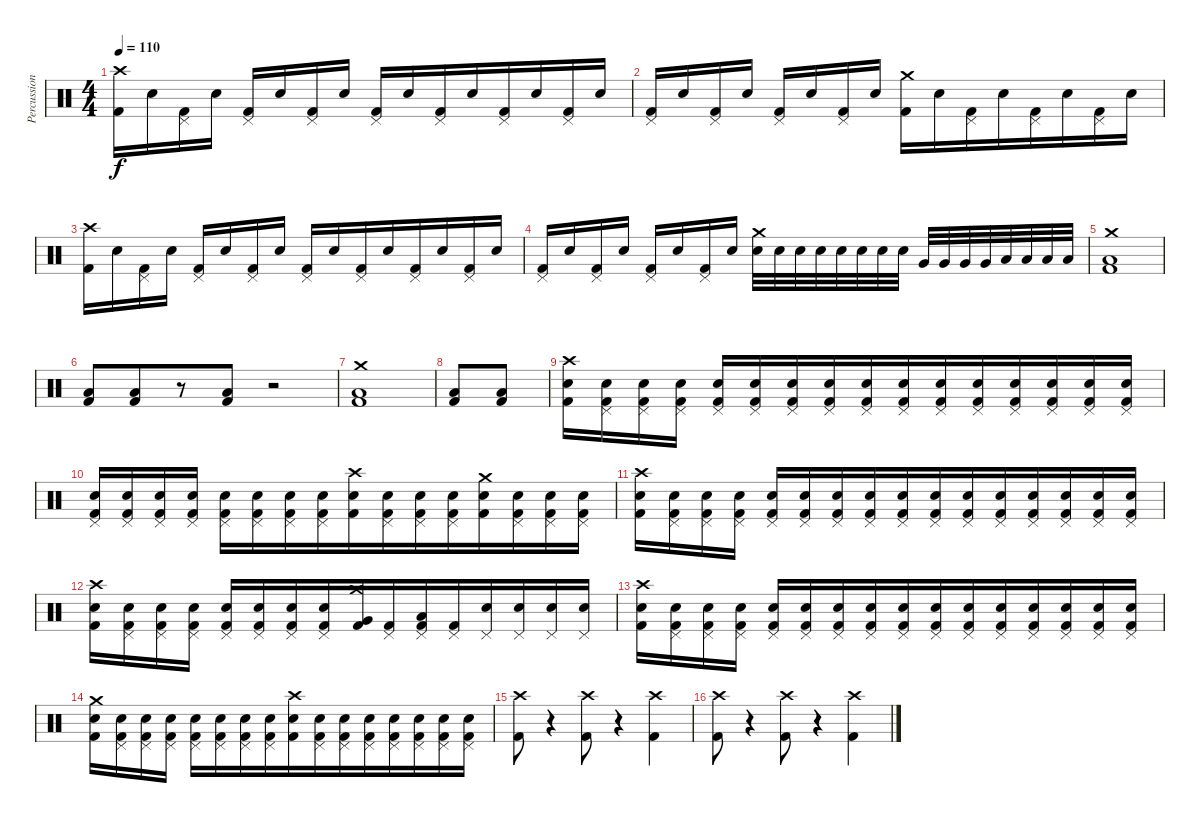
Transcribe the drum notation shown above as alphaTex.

\track ("Percussion" "Percussion") {instrument percussion bank 36}
\staff {score}
\articulation defaults
\ts (4 4)
\tempo 110
\clef neutral
\ks c
("Crash high (hit)" "Kick (hit) 2").16{dy f} "Electric Snare (hit)".16{beam merge} ("Pedal Hi-Hat (hit)" "Kick (hit) 2").16 "Electric Snare (hit)".16 ("Pedal Hi-Hat (hit)" "Kick (hit) 2").16{beam merge} "Electric Snare (hit)".16{beam merge} ("Pedal Hi-Hat (hit)" "Kick (hit) 2").16 "Electric Snare (hit)".16 ("Pedal Hi-Hat (hit)" "Kick (hit) 2").16 "Electric Snare (hit)".16{beam merge} ("Pedal Hi-Hat (hit)" "Kick (hit) 2").16 "Electric Snare (hit)".16{beam merge} ("Pedal Hi-Hat (hit)" "Kick (hit) 2").16{beam merge} "Electric Snare (hit)".16{beam merge} ("Pedal Hi-Hat (hit)" "Kick (hit) 2").16{beam merge} "Electric Snare (hit)".16 |
("Pedal Hi-Hat (hit)" "Kick (hit) 2").16 "Electric Snare (hit)".16{beam merge} ("Pedal Hi-Hat (hit)" "Kick (hit) 2").16 "Electric Snare (hit)".16 ("Pedal Hi-Hat (hit)" "Kick (hit) 2").16{beam merge} "Electric Snare (hit)".16{beam merge} ("Pedal Hi-Hat (hit)" "Kick (hit) 2").16 "Electric Snare (hit)".16 ("Crash medium (hit)" "Kick (hit) 2").16 "Electric Snare (hit)".16{beam merge} ("Pedal Hi-Hat (hit)" "Kick (hit) 2").16 "Electric Snare (hit)".16{beam merge} ("Pedal Hi-Hat (hit)" "Kick (hit) 2").16{beam merge} "Electric Snare (hit)".16{beam merge} ("Pedal Hi-Hat (hit)" "Kick (hit) 2").16{beam merge} "Electric Snare (hit)".16 |
("Crash high (hit)" "Kick (hit) 2").16 "Electric Snare (hit)".16{beam merge} ("Pedal Hi-Hat (hit)" "Kick (hit) 2").16 "Electric Snare (hit)".16 ("Pedal Hi-Hat (hit)" "Kick (hit) 2").16{beam merge} "Electric Snare (hit)".16{beam merge} ("Pedal Hi-Hat (hit)" "Kick (hit) 2").16 "Electric Snare (hit)".16 ("Pedal Hi-Hat (hit)" "Kick (hit) 2").16 "Electric Snare (hit)".16{beam merge} ("Pedal Hi-Hat (hit)" "Kick (hit) 2").16 "Electric Snare (hit)".16{beam merge} ("Pedal Hi-Hat (hit)" "Kick (hit) 2").16{beam merge} "Electric Snare (hit)".16{beam merge} ("Pedal Hi-Hat (hit)" "Kick (hit) 2").16{beam merge} "Electric Snare (hit)".16 |
("Pedal Hi-Hat (hit)" "Kick (hit) 2").16 "Electric Snare (hit)".16{beam merge} ("Pedal Hi-Hat (hit)" "Kick (hit) 2").16 "Electric Snare (hit)".16 ("Pedal Hi-Hat (hit)" "Kick (hit) 2").16{beam merge} "Electric Snare (hit)".16{beam merge} ("Pedal Hi-Hat (hit)" "Kick (hit) 2").16 "Electric Snare (hit)".16 ("Crash medium (hit)" "Electric Snare (hit)").32 "Electric Snare (hit)".32{beam merge} "Electric Snare (hit)".32 "Electric Snare (hit)".32{beam merge} "Electric Snare (hit)".32{beam merge} "Electric Snare (hit)".32{beam merge} "Electric Snare (hit)".32{beam merge} "Electric Snare (hit)".32 "Very Low Tom (hit)".32{beam merge} "Very Low Tom (hit)".32 "Very Low Tom (hit)".32 "Very Low Tom (hit)".32{beam merge} "Low Floor Tom (hit)".32 "Low Floor Tom (hit)".32{beam merge} "Low Floor Tom (hit)".32 "Low Floor Tom (hit)".32 |
("Crash medium (hit)" "Low Floor Tom (hit)" "Kick (hit) 2").1 |
("Low Floor Tom (hit)" "Kick (hit) 2").8 ("Low Floor Tom (hit)" "Kick (hit) 2").8{beam merge} r.8 ("Low Floor Tom (hit)" "Kick (hit) 2").8 r.2 |
("Crash medium (hit)" "Low Floor Tom (hit)" "Kick (hit) 2").1 |
("Low Floor Tom (hit)" "Kick (hit) 2").8 ("Low Floor Tom (hit)" "Kick (hit) 2").8 |
("Crash high (hit)" "Electric Snare (hit)" "Kick (hit) 2").16 ("Pedal Hi-Hat (hit)" "Electric Snare (hit)" "Kick (hit) 2").16 ("Pedal Hi-Hat (hit)" "Electric Snare (hit)" "Kick (hit) 2").16 ("Pedal Hi-Hat (hit)" "Electric Snare (hit)" "Kick (hit) 2").16 ("Pedal Hi-Hat (hit)" "Electric Snare (hit)" "Kick (hit) 2").16 ("Pedal Hi-Hat (hit)" "Electric Snare (hit)" "Kick (hit) 2").16 ("Pedal Hi-Hat (hit)" "Electric Snare (hit)" "Kick (hit) 2").16 ("Pedal Hi-Hat (hit)" "Electric Snare (hit)" "Kick (hit) 2").16{beam merge} ("Pedal Hi-Hat (hit)" "Electric Snare (hit)" "Kick (hit) 2").16{beam merge} ("Pedal Hi-Hat (hit)" "Electric Snare (hit)" "Kick (hit) 2").16{beam merge} ("Pedal Hi-Hat (hit)" "Electric Snare (hit)" "Kick (hit) 2").16 ("Pedal Hi-Hat (hit)" "Electric Snare (hit)" "Kick (hit) 2").16{beam merge} ("Pedal Hi-Hat (hit)" "Electric Snare (hit)" "Kick (hit) 2").16{beam merge} ("Pedal Hi-Hat (hit)" "Electric Snare (hit)" "Kick (hit) 2").16{beam merge} ("Pedal Hi-Hat (hit)" "Electric Snare (hit)" "Kick (hit) 2").16 ("Pedal Hi-Hat (hit)" "Electric Snare (hit)" "Kick (hit) 2").16 |
("Pedal Hi-Hat (hit)" "Electric Snare (hit)" "Kick (hit) 2").16 ("Pedal Hi-Hat (hit)" "Electric Snare (hit)" "Kick (hit) 2").16 ("Pedal Hi-Hat (hit)" "Electric Snare (hit)" "Kick (hit) 2").16 ("Pedal Hi-Hat (hit)" "Electric Snare (hit)" "Kick (hit) 2").16 ("Pedal Hi-Hat (hit)" "Electric Snare (hit)" "Kick (hit) 2").16 ("Pedal Hi-Hat (hit)" "Electric Snare (hit)" "Kick (hit) 2").16 ("Pedal Hi-Hat (hit)" "Electric Snare (hit)" "Kick (hit) 2").16 ("Pedal Hi-Hat (hit)" "Electric Snare (hit)" "Kick (hit) 2").16{beam merge} ("Crash high (hit)" "Electric Snare (hit)" "Kick (hit) 2").16{beam merge} ("Pedal Hi-Hat (hit)" "Electric Snare (hit)" "Kick (hit) 2").16{beam merge} ("Pedal Hi-Hat (hit)" "Electric Snare (hit)" "Kick (hit) 2").16 ("Pedal Hi-Hat (hit)" "Electric Snare (hit)" "Kick (hit) 2").16{beam merge} ("Crash medium (hit)" "Electric Snare (hit)" "Kick (hit) 2").16{beam merge} ("Pedal Hi-Hat (hit)" "Electric Snare (hit)" "Kick (hit) 2").16{beam merge} ("Pedal Hi-Hat (hit)" "Electric Snare (hit)" "Kick (hit) 2").16 ("Pedal Hi-Hat (hit)" "Electric Snare (hit)" "Kick (hit) 2").16 |
("Crash high (hit)" "Electric Snare (hit)" "Kick (hit) 2").16 ("Pedal Hi-Hat (hit)" "Electric Snare (hit)" "Kick (hit) 2").16 ("Pedal Hi-Hat (hit)" "Electric Snare (hit)" "Kick (hit) 2").16 ("Pedal Hi-Hat (hit)" "Electric Snare (hit)" "Kick (hit) 2").16 ("Pedal Hi-Hat (hit)" "Electric Snare (hit)" "Kick (hit) 2").16 ("Pedal Hi-Hat (hit)" "Electric Snare (hit)" "Kick (hit) 2").16 ("Pedal Hi-Hat (hit)" "Electric Snare (hit)" "Kick (hit) 2").16 ("Pedal Hi-Hat (hit)" "Electric Snare (hit)" "Kick (hit) 2").16{beam merge} ("Pedal Hi-Hat (hit)" "Electric Snare (hit)" "Kick (hit) 2").16{beam merge} ("Pedal Hi-Hat (hit)" "Electric Snare (hit)" "Kick (hit) 2").16{beam merge} ("Pedal Hi-Hat (hit)" "Electric Snare (hit)" "Kick (hit) 2").16 ("Pedal Hi-Hat (hit)" "Electric Snare (hit)" "Kick (hit) 2").16{beam merge} ("Pedal Hi-Hat (hit)" "Electric Snare (hit)" "Kick (hit) 2").16{beam merge} ("Pedal Hi-Hat (hit)" "Electric Snare (hit)" "Kick (hit) 2").16{beam merge} ("Pedal Hi-Hat (hit)" "Electric Snare (hit)" "Kick (hit) 2").16 ("Pedal Hi-Hat (hit)" "Electric Snare (hit)" "Kick (hit) 2").16 |
("Crash high (hit)" "Electric Snare (hit)" "Kick (hit) 2").16 ("Pedal Hi-Hat (hit)" "Electric Snare (hit)" "Kick (hit) 2").16 ("Pedal Hi-Hat (hit)" "Electric Snare (hit)" "Kick (hit) 2").16 ("Pedal Hi-Hat (hit)" "Electric Snare (hit)" "Kick (hit) 2").16 ("Pedal Hi-Hat (hit)" "Electric Snare (hit)" "Kick (hit) 2").16 ("Pedal Hi-Hat (hit)" "Electric Snare (hit)" "Kick (hit) 2").16 ("Pedal Hi-Hat (hit)" "Electric Snare (hit)" "Kick (hit) 2").16 ("Pedal Hi-Hat (hit)" "Electric Snare (hit)" "Kick (hit) 2").16{beam merge} ("Crash medium (hit)" "Very Low Tom (hit)" "Kick (hit) 2").16{beam merge} ("Pedal Hi-Hat (hit)" "Kick (hit) 2").16{beam merge} ("Pedal Hi-Hat (hit)" "Low Tom (hit)" "Kick (hit) 2").16 ("Pedal Hi-Hat (hit)" "Kick (hit) 2").16{beam merge} ("Pedal Hi-Hat (hit)" "Electric Snare (hit)").16{beam merge} ("Pedal Hi-Hat (hit)" "Electric Snare (hit)").16{beam merge} ("Pedal Hi-Hat (hit)" "Electric Snare (hit)").16 ("Pedal Hi-Hat (hit)" "Electric Snare (hit)").16 |
("Crash high (hit)" "Electric Snare (hit)" "Kick (hit) 2").16 ("Pedal Hi-Hat (hit)" "Electric Snare (hit)" "Kick (hit) 2").16 ("Pedal Hi-Hat (hit)" "Electric Snare (hit)" "Kick (hit) 2").16 ("Pedal Hi-Hat (hit)" "Electric Snare (hit)" "Kick (hit) 2").16 ("Pedal Hi-Hat (hit)" "Electric Snare (hit)" "Kick (hit) 2").16 ("Pedal Hi-Hat (hit)" "Electric Snare (hit)" "Kick (hit) 2").16 ("Pedal Hi-Hat (hit)" "Electric Snare (hit)" "Kick (hit) 2").16 ("Pedal Hi-Hat (hit)" "Electric Snare (hit)" "Kick (hit) 2").16{beam merge} ("Pedal Hi-Hat (hit)" "Electric Snare (hit)" "Kick (hit) 2").16{beam merge} ("Pedal Hi-Hat (hit)" "Electric Snare (hit)" "Kick (hit) 2").16{beam merge} ("Pedal Hi-Hat (hit)" "Electric Snare (hit)" "Kick (hit) 2").16 ("Pedal Hi-Hat (hit)" "Electric Snare (hit)" "Kick (hit) 2").16{beam merge} ("Pedal Hi-Hat (hit)" "Electric Snare (hit)" "Kick (hit) 2").16{beam merge} ("Pedal Hi-Hat (hit)" "Electric Snare (hit)" "Kick (hit) 2").16{beam merge} ("Pedal Hi-Hat (hit)" "Electric Snare (hit)" "Kick (hit) 2").16 ("Pedal Hi-Hat (hit)" "Electric Snare (hit)" "Kick (hit) 2").16 |
("Crash medium (hit)" "Electric Snare (hit)" "Kick (hit) 2").16 ("Pedal Hi-Hat (hit)" "Electric Snare (hit)" "Kick (hit) 2").16 ("Pedal Hi-Hat (hit)" "Electric Snare (hit)" "Kick (hit) 2").16 ("Pedal Hi-Hat (hit)" "Electric Snare (hit)" "Kick (hit) 2").16 ("Pedal Hi-Hat (hit)" "Electric Snare (hit)" "Kick (hit) 2").16 ("Pedal Hi-Hat (hit)" "Electric Snare (hit)" "Kick (hit) 2").16 ("Pedal Hi-Hat (hit)" "Electric Snare (hit)" "Kick (hit) 2").16 ("Pedal Hi-Hat (hit)" "Electric Snare (hit)" "Kick (hit) 2").16{beam merge} ("Crash high (hit)" "Electric Snare (hit)" "Kick (hit) 2").16{beam merge} ("Pedal Hi-Hat (hit)" "Electric Snare (hit)" "Kick (hit) 2").16{beam merge} ("Pedal Hi-Hat (hit)" "Electric Snare (hit)" "Kick (hit) 2").16 ("Pedal Hi-Hat (hit)" "Electric Snare (hit)" "Kick (hit) 2").16{beam merge} ("Pedal Hi-Hat (hit)" "Electric Snare (hit)" "Kick (hit) 2").16{beam merge} ("Pedal Hi-Hat (hit)" "Electric Snare (hit)" "Kick (hit) 2").16{beam merge} ("Pedal Hi-Hat (hit)" "Electric Snare (hit)" "Kick (hit) 2").16 ("Pedal Hi-Hat (hit)" "Electric Snare (hit)" "Kick (hit) 2").16 |
("Crash high (hit)" "Kick (hit) 2").8 r.4 ("Crash high (hit)" "Kick (hit) 2").8 r.4{beam merge} ("Crash high (hit)" "Kick (hit) 2").4 |
("Crash high (hit)" "Kick (hit) 2").8 r.4 ("Crash high (hit)" "Kick (hit) 2").8 r.4{beam merge} ("Crash high (hit)" "Kick (hit) 2").4
